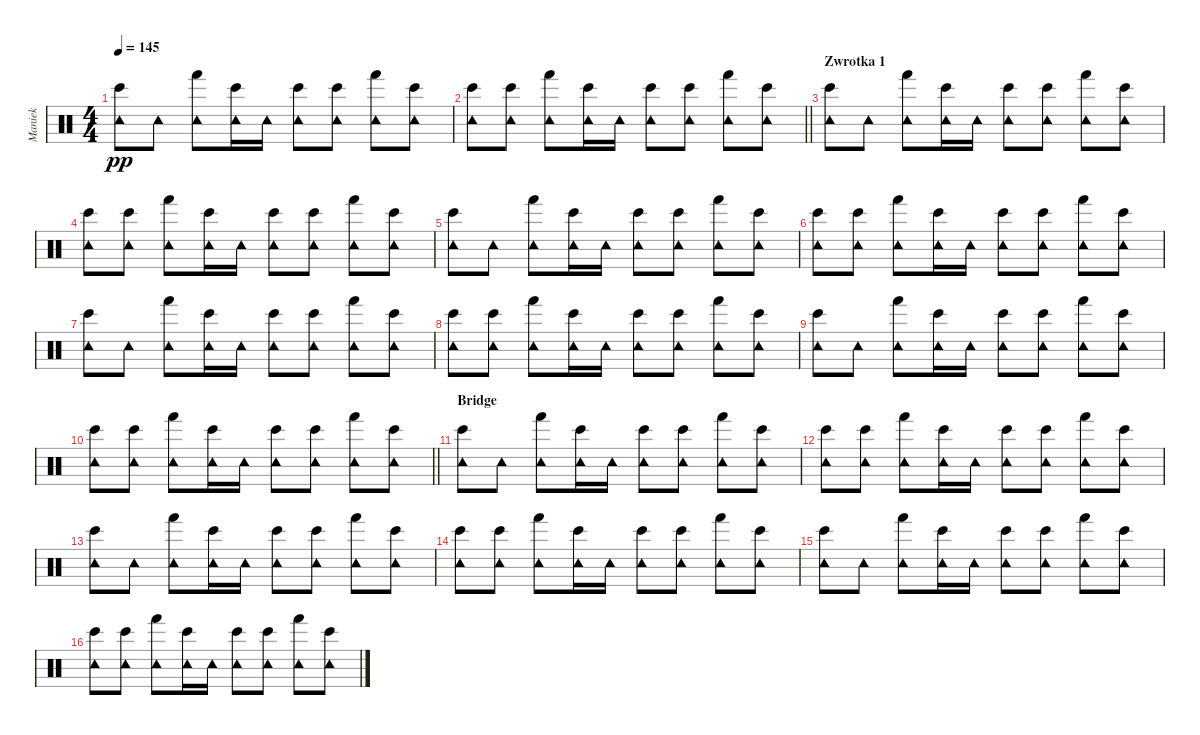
\track ("Maniek" "Maniek") {instrument percussion}
\staff {score}
\articulation defaults
\ts (4 4)
\tempo 145
\clef neutral
\ks c
("Bongo High (hit)" "Tambourine (hit)").8{dy pp} "Tambourine (hit)".8 ("Hand (hit)" "Tambourine (hit)").8 ("Bongo High (hit)" "Tambourine (hit)").16 "Tambourine (hit)".16 ("Bongo High (hit)" "Tambourine (hit)").8 ("Bongo High (hit)" "Tambourine (hit)").8 ("Hand (hit)" "Tambourine (hit)").8 ("Bongo High (hit)" "Tambourine (hit)").8 |
\barLineRight lightlight
("Bongo High (hit)" "Tambourine (hit)").8 ("Bongo High (hit)" "Tambourine (hit)").8 ("Hand (hit)" "Tambourine (hit)").8 ("Bongo High (hit)" "Tambourine (hit)").16 "Tambourine (hit)".16 ("Bongo High (hit)" "Tambourine (hit)").8 ("Bongo High (hit)" "Tambourine (hit)").8 ("Hand (hit)" "Tambourine (hit)").8 ("Bongo High (hit)" "Tambourine (hit)").8 |
\section ("" "Zwrotka 1")
("Bongo High (hit)" "Tambourine (hit)").8 "Tambourine (hit)".8 ("Hand (hit)" "Tambourine (hit)").8 ("Bongo High (hit)" "Tambourine (hit)").16 "Tambourine (hit)".16 ("Bongo High (hit)" "Tambourine (hit)").8 ("Bongo High (hit)" "Tambourine (hit)").8 ("Hand (hit)" "Tambourine (hit)").8 ("Bongo High (hit)" "Tambourine (hit)").8 |
("Bongo High (hit)" "Tambourine (hit)").8 ("Bongo High (hit)" "Tambourine (hit)").8 ("Hand (hit)" "Tambourine (hit)").8 ("Bongo High (hit)" "Tambourine (hit)").16 "Tambourine (hit)".16 ("Bongo High (hit)" "Tambourine (hit)").8 ("Bongo High (hit)" "Tambourine (hit)").8 ("Hand (hit)" "Tambourine (hit)").8 ("Bongo High (hit)" "Tambourine (hit)").8 |
("Bongo High (hit)" "Tambourine (hit)").8 "Tambourine (hit)".8 ("Hand (hit)" "Tambourine (hit)").8 ("Bongo High (hit)" "Tambourine (hit)").16 "Tambourine (hit)".16 ("Bongo High (hit)" "Tambourine (hit)").8 ("Bongo High (hit)" "Tambourine (hit)").8 ("Hand (hit)" "Tambourine (hit)").8 ("Bongo High (hit)" "Tambourine (hit)").8 |
("Bongo High (hit)" "Tambourine (hit)").8 ("Bongo High (hit)" "Tambourine (hit)").8 ("Hand (hit)" "Tambourine (hit)").8 ("Bongo High (hit)" "Tambourine (hit)").16 "Tambourine (hit)".16 ("Bongo High (hit)" "Tambourine (hit)").8 ("Bongo High (hit)" "Tambourine (hit)").8 ("Hand (hit)" "Tambourine (hit)").8 ("Bongo High (hit)" "Tambourine (hit)").8 |
("Bongo High (hit)" "Tambourine (hit)").8 "Tambourine (hit)".8 ("Hand (hit)" "Tambourine (hit)").8 ("Bongo High (hit)" "Tambourine (hit)").16 "Tambourine (hit)".16 ("Bongo High (hit)" "Tambourine (hit)").8 ("Bongo High (hit)" "Tambourine (hit)").8 ("Hand (hit)" "Tambourine (hit)").8 ("Bongo High (hit)" "Tambourine (hit)").8 |
("Bongo High (hit)" "Tambourine (hit)").8 ("Bongo High (hit)" "Tambourine (hit)").8 ("Hand (hit)" "Tambourine (hit)").8 ("Bongo High (hit)" "Tambourine (hit)").16 "Tambourine (hit)".16 ("Bongo High (hit)" "Tambourine (hit)").8 ("Bongo High (hit)" "Tambourine (hit)").8 ("Hand (hit)" "Tambourine (hit)").8 ("Bongo High (hit)" "Tambourine (hit)").8 |
("Bongo High (hit)" "Tambourine (hit)").8 "Tambourine (hit)".8 ("Hand (hit)" "Tambourine (hit)").8 ("Bongo High (hit)" "Tambourine (hit)").16 "Tambourine (hit)".16 ("Bongo High (hit)" "Tambourine (hit)").8 ("Bongo High (hit)" "Tambourine (hit)").8 ("Hand (hit)" "Tambourine (hit)").8 ("Bongo High (hit)" "Tambourine (hit)").8 |
\barLineRight lightlight
("Bongo High (hit)" "Tambourine (hit)").8 ("Bongo High (hit)" "Tambourine (hit)").8 ("Hand (hit)" "Tambourine (hit)").8 ("Bongo High (hit)" "Tambourine (hit)").16 "Tambourine (hit)".16 ("Bongo High (hit)" "Tambourine (hit)").8 ("Bongo High (hit)" "Tambourine (hit)").8 ("Hand (hit)" "Tambourine (hit)").8 ("Bongo High (hit)" "Tambourine (hit)").8 |
\section ("" "Bridge")
("Bongo High (hit)" "Tambourine (hit)").8 "Tambourine (hit)".8 ("Hand (hit)" "Tambourine (hit)").8 ("Bongo High (hit)" "Tambourine (hit)").16 "Tambourine (hit)".16 ("Bongo High (hit)" "Tambourine (hit)").8 ("Bongo High (hit)" "Tambourine (hit)").8 ("Hand (hit)" "Tambourine (hit)").8 ("Bongo High (hit)" "Tambourine (hit)").8 |
("Bongo High (hit)" "Tambourine (hit)").8 ("Bongo High (hit)" "Tambourine (hit)").8 ("Hand (hit)" "Tambourine (hit)").8 ("Bongo High (hit)" "Tambourine (hit)").16 "Tambourine (hit)".16 ("Bongo High (hit)" "Tambourine (hit)").8 ("Bongo High (hit)" "Tambourine (hit)").8 ("Hand (hit)" "Tambourine (hit)").8 ("Bongo High (hit)" "Tambourine (hit)").8 |
("Bongo High (hit)" "Tambourine (hit)").8 "Tambourine (hit)".8 ("Hand (hit)" "Tambourine (hit)").8 ("Bongo High (hit)" "Tambourine (hit)").16 "Tambourine (hit)".16 ("Bongo High (hit)" "Tambourine (hit)").8 ("Bongo High (hit)" "Tambourine (hit)").8 ("Hand (hit)" "Tambourine (hit)").8 ("Bongo High (hit)" "Tambourine (hit)").8 |
("Bongo High (hit)" "Tambourine (hit)").8 ("Bongo High (hit)" "Tambourine (hit)").8 ("Hand (hit)" "Tambourine (hit)").8 ("Bongo High (hit)" "Tambourine (hit)").16 "Tambourine (hit)".16 ("Bongo High (hit)" "Tambourine (hit)").8 ("Bongo High (hit)" "Tambourine (hit)").8 ("Hand (hit)" "Tambourine (hit)").8 ("Bongo High (hit)" "Tambourine (hit)").8 |
("Bongo High (hit)" "Tambourine (hit)").8 "Tambourine (hit)".8 ("Hand (hit)" "Tambourine (hit)").8 ("Bongo High (hit)" "Tambourine (hit)").16 "Tambourine (hit)".16 ("Bongo High (hit)" "Tambourine (hit)").8 ("Bongo High (hit)" "Tambourine (hit)").8 ("Hand (hit)" "Tambourine (hit)").8 ("Bongo High (hit)" "Tambourine (hit)").8 |
("Bongo High (hit)" "Tambourine (hit)").8 ("Bongo High (hit)" "Tambourine (hit)").8 ("Hand (hit)" "Tambourine (hit)").8 ("Bongo High (hit)" "Tambourine (hit)").16 "Tambourine (hit)".16 ("Bongo High (hit)" "Tambourine (hit)").8 ("Bongo High (hit)" "Tambourine (hit)").8 ("Hand (hit)" "Tambourine (hit)").8 ("Bongo High (hit)" "Tambourine (hit)").8
